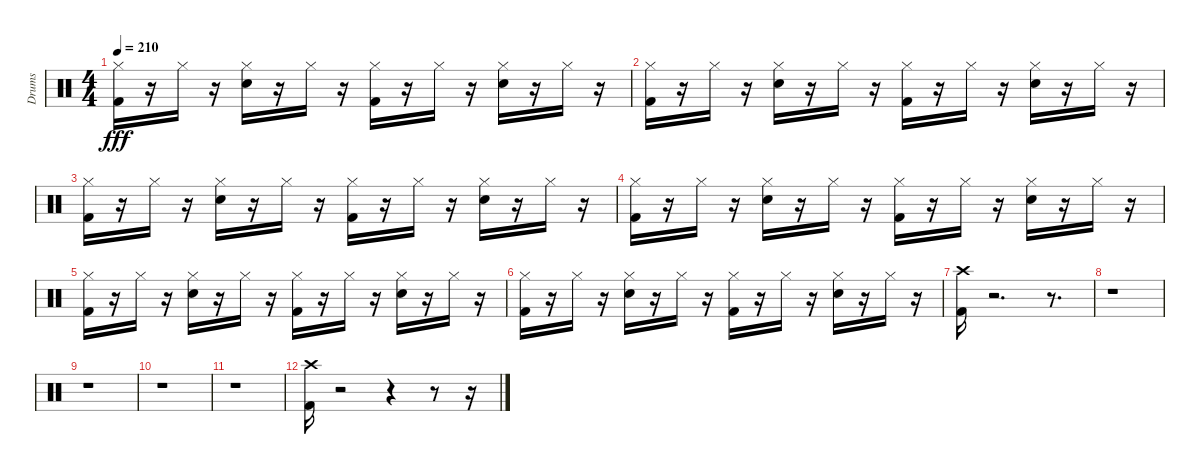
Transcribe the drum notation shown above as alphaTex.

\track ("Drums" "Drums") {instrument percussion}
\staff {score}
\articulation defaults
\ts (4 4)
\tempo 210
\clef neutral
\ks c
("Kick (hit) 2" "Hi-Hat (closed)").16{dy fff} r.16 "Hi-Hat (closed)".16 r.16 ("Hi-Hat (closed)" "Snare (hit) 2").16 r.16 "Hi-Hat (closed)".16 r.16 ("Hi-Hat (closed)" "Kick (hit) 2").16 r.16 "Hi-Hat (closed)".16 r.16 ("Hi-Hat (closed)" "Snare (hit) 2").16 r.16 "Hi-Hat (closed)".16 r.16 |
("Hi-Hat (closed)" "Kick (hit) 2").16 r.16 "Hi-Hat (closed)".16 r.16 ("Hi-Hat (closed)" "Snare (hit) 2").16 r.16 "Hi-Hat (closed)".16 r.16 ("Hi-Hat (closed)" "Kick (hit) 2").16 r.16 "Hi-Hat (closed)".16 r.16 ("Hi-Hat (closed)" "Snare (hit) 2").16 r.16 "Hi-Hat (closed)".16 r.16 |
("Kick (hit) 2" "Hi-Hat (closed)").16 r.16 "Hi-Hat (closed)".16 r.16 ("Hi-Hat (closed)" "Snare (hit) 2").16 r.16 "Hi-Hat (closed)".16 r.16 ("Kick (hit) 2" "Hi-Hat (closed)").16 r.16 "Hi-Hat (closed)".16 r.16 ("Snare (hit) 2" "Hi-Hat (closed)").16 r.16 "Hi-Hat (closed)".16 r.16 |
("Kick (hit) 2" "Hi-Hat (closed)").16 r.16 "Hi-Hat (closed)".16 r.16 ("Snare (hit) 2" "Hi-Hat (closed)").16 r.16 "Hi-Hat (closed)".16 r.16 ("Hi-Hat (closed)" "Kick (hit) 2").16 r.16 "Hi-Hat (closed)".16 r.16 ("Hi-Hat (closed)" "Snare (hit) 2").16 r.16 "Hi-Hat (closed)".16 r.16 |
("Hi-Hat (closed)" "Kick (hit) 2").16 r.16 "Hi-Hat (closed)".16 r.16 ("Hi-Hat (closed)" "Snare (hit) 2").16 r.16 "Hi-Hat (closed)".16 r.16 ("Kick (hit) 2" "Hi-Hat (closed)").16 r.16 "Hi-Hat (closed)".16 r.16 ("Snare (hit) 2" "Hi-Hat (closed)").16 r.16 "Hi-Hat (closed)".16 r.16 |
("Hi-Hat (closed)" "Kick (hit) 2").16 r.16 "Hi-Hat (closed)".16 r.16 ("Hi-Hat (closed)" "Snare (hit) 2").16 r.16 "Hi-Hat (closed)".16 r.16 ("Hi-Hat (closed)" "Kick (hit) 2").16 r.16 "Hi-Hat (closed)".16 r.16 ("Snare (hit) 2" "Hi-Hat (closed)").16 r.16 "Hi-Hat (closed)".16 r.16 |
("Kick (hit) 2" "Crash high (hit)").16 r.2{d} r.8{d} |
r.1 |
r.1 |
r.1 |
r.1 |
("Crash high (hit)" "Kick (hit) 2").16 r.2 r.4 r.8 r.16
